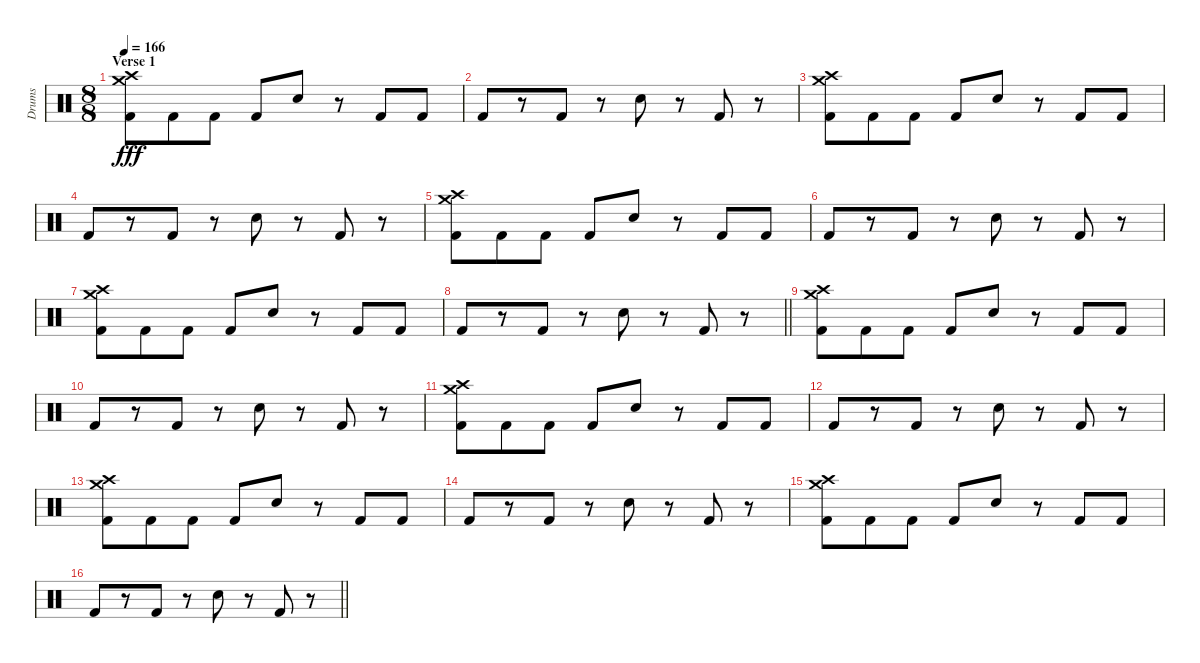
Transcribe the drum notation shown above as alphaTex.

\track ("Drums" "Drums") {instrument percussion}
\staff {score}
\articulation defaults
\ts (8 8)
\section ("" "Verse 1")
\tempo 166
\clef neutral
\ks c
("Crash high (hit)" "Crash medium (hit)" "Kick (hit) 2").8{dy fff} "Kick (hit) 2".8 "Kick (hit) 2".8 "Kick (hit) 2".8 "Electric Snare (hit)".8 r.8 "Kick (hit) 2".8 "Kick (hit) 2".8 |
"Kick (hit) 2".8 r.8 "Kick (hit) 2".8 r.8 "Electric Snare (hit)".8 r.8 "Kick (hit) 2".8 r.8 |
("Crash high (hit)" "Crash medium (hit)" "Kick (hit) 2").8 "Kick (hit) 2".8 "Kick (hit) 2".8 "Kick (hit) 2".8 "Electric Snare (hit)".8 r.8 "Kick (hit) 2".8 "Kick (hit) 2".8 |
"Kick (hit) 2".8 r.8 "Kick (hit) 2".8 r.8 "Electric Snare (hit)".8 r.8 "Kick (hit) 2".8 r.8 |
("Crash high (hit)" "Crash medium (hit)" "Kick (hit) 2").8 "Kick (hit) 2".8 "Kick (hit) 2".8 "Kick (hit) 2".8 "Electric Snare (hit)".8 r.8 "Kick (hit) 2".8 "Kick (hit) 2".8 |
"Kick (hit) 2".8 r.8 "Kick (hit) 2".8 r.8 "Electric Snare (hit)".8 r.8 "Kick (hit) 2".8 r.8 |
("Crash high (hit)" "Crash medium (hit)" "Kick (hit) 2").8 "Kick (hit) 2".8 "Kick (hit) 2".8 "Kick (hit) 2".8 "Electric Snare (hit)".8 r.8 "Kick (hit) 2".8 "Kick (hit) 2".8 |
\barLineRight lightlight "Kick (hit) 2".8
r.8 "Kick (hit) 2".8 r.8 "Electric Snare (hit)".8 r.8 "Kick (hit) 2".8 r.8 |
("Crash high (hit)" "Crash medium (hit)" "Kick (hit) 2").8 "Kick (hit) 2".8 "Kick (hit) 2".8 "Kick (hit) 2".8 "Electric Snare (hit)".8 r.8 "Kick (hit) 2".8 "Kick (hit) 2".8 |
"Kick (hit) 2".8 r.8 "Kick (hit) 2".8 r.8 "Electric Snare (hit)".8 r.8 "Kick (hit) 2".8 r.8 |
("Crash high (hit)" "Crash medium (hit)" "Kick (hit) 2").8 "Kick (hit) 2".8 "Kick (hit) 2".8 "Kick (hit) 2".8 "Electric Snare (hit)".8 r.8 "Kick (hit) 2".8 "Kick (hit) 2".8 |
"Kick (hit) 2".8 r.8 "Kick (hit) 2".8 r.8 "Electric Snare (hit)".8 r.8 "Kick (hit) 2".8 r.8 |
("Crash high (hit)" "Crash medium (hit)" "Kick (hit) 2").8 "Kick (hit) 2".8 "Kick (hit) 2".8 "Kick (hit) 2".8 "Electric Snare (hit)".8 r.8 "Kick (hit) 2".8 "Kick (hit) 2".8 |
"Kick (hit) 2".8 r.8 "Kick (hit) 2".8 r.8 "Electric Snare (hit)".8 r.8 "Kick (hit) 2".8 r.8 |
("Crash high (hit)" "Crash medium (hit)" "Kick (hit) 2").8 "Kick (hit) 2".8 "Kick (hit) 2".8 "Kick (hit) 2".8 "Electric Snare (hit)".8 r.8 "Kick (hit) 2".8 "Kick (hit) 2".8 |
\barLineRight lightlight "Kick (hit) 2".8
r.8 "Kick (hit) 2".8 r.8 "Electric Snare (hit)".8 r.8 "Kick (hit) 2".8 r.8
